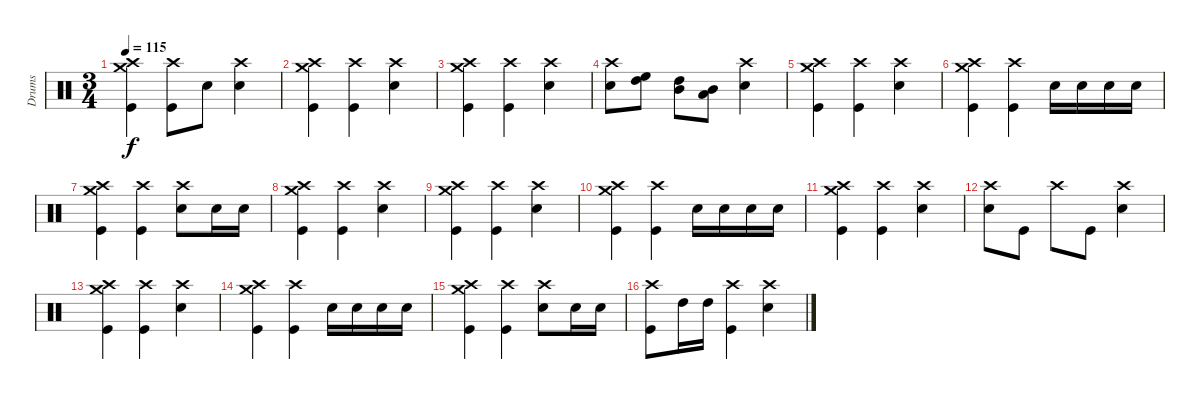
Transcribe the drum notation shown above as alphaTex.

\track ("Drums" "Drums") {instrument percussion}
\staff {score}
\articulation defaults
\ts (3 4)
\tempo 115
\clef neutral
\ks c
("Crash high (hit)" "Crash medium (hit)" "Kick (hit)").4{dy f} ("Crash high (hit)" "Kick (hit)").8 "Snare (hit) 2".8 ("Crash high (hit)" "Snare (hit) 2").4 |
("Crash high (hit)" "Crash medium (hit)" "Kick (hit)").4 ("Crash high (hit)" "Kick (hit)").4 ("Crash high (hit)" "Snare (hit) 2").4 |
("Crash high (hit)" "Crash medium (hit)" "Kick (hit)").4 ("Crash high (hit)" "Kick (hit)").4 ("Crash high (hit)" "Snare (hit) 2").4 |
("Crash high (hit)" "Snare (hit) 2").8 ("High Tom (hit)" "High Floor Tom (hit)").8 ("High Tom (hit)" "Mid Tom (hit)").8 ("Mid Tom (hit)" "Low Tom (hit)").8 ("Crash high (hit)" "Snare (hit) 2").4 |
("Crash high (hit)" "Crash medium (hit)" "Kick (hit)").4 ("Crash high (hit)" "Kick (hit)").4 ("Crash high (hit)" "Snare (hit) 2").4 |
("Crash high (hit)" "Crash medium (hit)" "Kick (hit)").4 ("Crash high (hit)" "Kick (hit)").4 "Snare (hit) 2".16 "Snare (hit) 2".16 "Snare (hit) 2".16 "Snare (hit) 2".16 |
("Crash high (hit)" "Crash medium (hit)" "Kick (hit)").4 ("Crash high (hit)" "Kick (hit)").4 ("Crash high (hit)" "Snare (hit) 2").8 "Snare (hit) 2".16 "Snare (hit) 2".16 |
("Crash high (hit)" "Crash medium (hit)" "Kick (hit)").4 ("Crash high (hit)" "Kick (hit)").4 ("Crash high (hit)" "Snare (hit) 2").4 |
("Crash high (hit)" "Crash medium (hit)" "Kick (hit)").4 ("Crash high (hit)" "Kick (hit)").4 ("Crash high (hit)" "Snare (hit) 2").4 |
("Crash high (hit)" "Crash medium (hit)" "Kick (hit)").4 ("Crash high (hit)" "Kick (hit)").4 "Snare (hit) 2".16 "Snare (hit) 2".16 "Snare (hit) 2".16 "Snare (hit) 2".16 |
("Crash high (hit)" "Crash medium (hit)" "Kick (hit)").4 ("Crash high (hit)" "Kick (hit)").4 ("Crash high (hit)" "Snare (hit) 2").4 |
("Crash high (hit)" "Snare (hit) 2").8 "Kick (hit)".8 "Crash high (hit)".8 "Kick (hit)".8 ("Crash high (hit)" "Snare (hit) 2").4 |
("Crash high (hit)" "Crash medium (hit)" "Kick (hit)").4 ("Crash high (hit)" "Kick (hit)").4 ("Crash high (hit)" "Snare (hit) 2").4 |
("Crash high (hit)" "Crash medium (hit)" "Kick (hit)").4 ("Crash high (hit)" "Kick (hit)").4 "Snare (hit) 2".16 "Snare (hit) 2".16 "Snare (hit) 2".16 "Snare (hit) 2".16 |
("Crash high (hit)" "Crash medium (hit)" "Kick (hit)").4 ("Crash high (hit)" "Kick (hit)").4 ("Crash high (hit)" "Snare (hit) 2").8 "Snare (hit) 2".16 "Snare (hit) 2".16 |
("Crash high (hit)" "Kick (hit)").8 "High Tom (hit)".16 "High Tom (hit)".16 ("Crash high (hit)" "Kick (hit)").4 ("Crash high (hit)" "Snare (hit) 2").4
